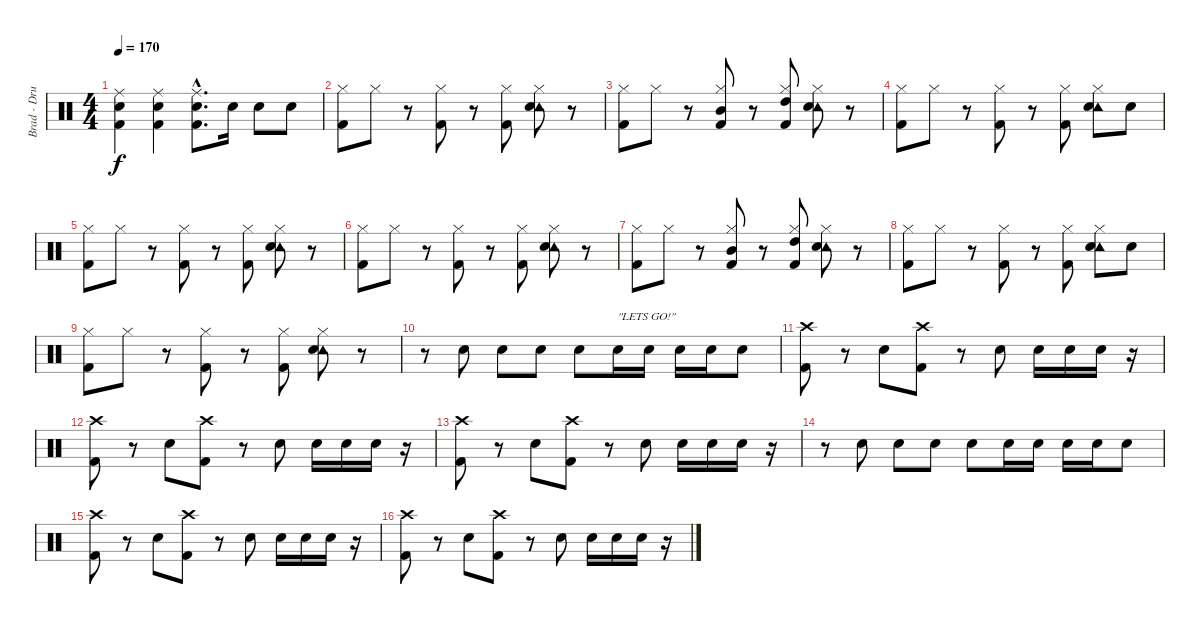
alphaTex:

\track ("Brad - Drums" "Brad - Dru") {instrument percussion}
\staff {score}
\articulation defaults
\ts (4 4)
\tempo 170
\clef neutral
\ks c
("Ride (middle)" "Electric Snare (hit)" "Kick (hit) 2").4{dy f} ("Ride (middle)" "Electric Snare (hit)" "Kick (hit) 2").4 ("Ride (middle)"{hac} "Electric Snare (hit)"{hac} "Kick (hit) 2"{hac}).8{d} "Electric Snare (hit)".16 "Electric Snare (hit)".8 "Electric Snare (hit)".8 |
("Hi-Hat (closed)" "Kick (hit) 2").8 "Hi-Hat (closed)".8 r.8 ("Hi-Hat (closed)" "Kick (hit) 2").8 r.8 ("Hi-Hat (closed)" "Kick (hit) 2").8 ("Hi-Hat (closed)" "Tambourine (hit)" "Electric Snare (hit)").8 r.8 |
("Hi-Hat (closed)" "Kick (hit) 2").8 "Hi-Hat (closed)".8 r.8 ("Hi-Hat (closed)" "Mid Tom (hit)" "Kick (hit) 2").8 r.8 ("Hi-Hat (closed)" "High Tom (hit)" "Kick (hit) 2").8 ("Hi-Hat (closed)" "Tambourine (hit)" "Electric Snare (hit)").8 r.8 |
("Hi-Hat (closed)" "Kick (hit) 2").8 "Hi-Hat (closed)".8 r.8 ("Hi-Hat (closed)" "Kick (hit) 2").8 r.8 ("Hi-Hat (closed)" "Kick (hit) 2").8 ("Hi-Hat (closed)" "Tambourine (hit)" "Electric Snare (hit)").8 "Electric Snare (hit)".8 |
("Hi-Hat (closed)" "Kick (hit) 2").8 "Hi-Hat (closed)".8 r.8 ("Hi-Hat (closed)" "Kick (hit) 2").8 r.8 ("Hi-Hat (closed)" "Kick (hit) 2").8 ("Hi-Hat (closed)" "Tambourine (hit)" "Electric Snare (hit)").8 r.8 |
("Hi-Hat (closed)" "Kick (hit) 2").8 "Hi-Hat (closed)".8 r.8 ("Hi-Hat (closed)" "Kick (hit) 2").8 r.8 ("Hi-Hat (closed)" "Kick (hit) 2").8 ("Hi-Hat (closed)" "Tambourine (hit)" "Electric Snare (hit)").8 r.8 |
("Hi-Hat (closed)" "Kick (hit) 2").8 "Hi-Hat (closed)".8 r.8 ("Hi-Hat (closed)" "Mid Tom (hit)" "Kick (hit) 2").8 r.8 ("Hi-Hat (closed)" "High Tom (hit)" "Kick (hit) 2").8 ("Hi-Hat (closed)" "Tambourine (hit)" "Electric Snare (hit)").8 r.8 |
("Hi-Hat (closed)" "Kick (hit) 2").8 "Hi-Hat (closed)".8 r.8 ("Hi-Hat (closed)" "Kick (hit) 2").8 r.8 ("Hi-Hat (closed)" "Kick (hit) 2").8 ("Hi-Hat (closed)" "Tambourine (hit)" "Electric Snare (hit)").8 "Electric Snare (hit)".8 |
("Hi-Hat (closed)" "Kick (hit) 2").8 "Hi-Hat (closed)".8 r.8 ("Hi-Hat (closed)" "Kick (hit) 2").8 r.8 ("Hi-Hat (closed)" "Kick (hit) 2").8 ("Hi-Hat (closed)" "Tambourine (hit)" "Electric Snare (hit)").8 r.8 |
r.8 "Electric Snare (hit)".8 "Electric Snare (hit)".8 "Electric Snare (hit)".8 "Electric Snare (hit)".8 "Electric Snare (hit)".16{txt "\"LETS GO!\""} "Electric Snare (hit)".16 "Electric Snare (hit)".16 "Electric Snare (hit)".16 "Electric Snare (hit)".8 |
("Crash high (hit)" "Kick (hit) 2").8 r.8 "Electric Snare (hit)".8 ("Crash high (hit)" "Kick (hit) 2").8 r.8 "Electric Snare (hit)".8 "Electric Snare (hit)".16 "Electric Snare (hit)".16 "Electric Snare (hit)".16 r.16 |
("Crash high (hit)" "Kick (hit) 2").8 r.8 "Electric Snare (hit)".8 ("Crash high (hit)" "Kick (hit) 2").8 r.8 "Electric Snare (hit)".8 "Electric Snare (hit)".16 "Electric Snare (hit)".16 "Electric Snare (hit)".16 r.16 |
("Crash high (hit)" "Kick (hit) 2").8 r.8 "Electric Snare (hit)".8 ("Crash high (hit)" "Kick (hit) 2").8 r.8 "Electric Snare (hit)".8 "Electric Snare (hit)".16 "Electric Snare (hit)".16 "Electric Snare (hit)".16 r.16 |
r.8 "Electric Snare (hit)".8 "Electric Snare (hit)".8 "Electric Snare (hit)".8 "Electric Snare (hit)".8 "Electric Snare (hit)".16 "Electric Snare (hit)".16 "Electric Snare (hit)".16 "Electric Snare (hit)".16 "Electric Snare (hit)".8 |
("Crash high (hit)" "Kick (hit) 2").8 r.8 "Electric Snare (hit)".8 ("Crash high (hit)" "Kick (hit) 2").8 r.8 "Electric Snare (hit)".8 "Electric Snare (hit)".16 "Electric Snare (hit)".16 "Electric Snare (hit)".16 r.16 |
("Crash high (hit)" "Kick (hit) 2").8 r.8 "Electric Snare (hit)".8 ("Crash high (hit)" "Kick (hit) 2").8 r.8 "Electric Snare (hit)".8 "Electric Snare (hit)".16 "Electric Snare (hit)".16 "Electric Snare (hit)".16 r.16
